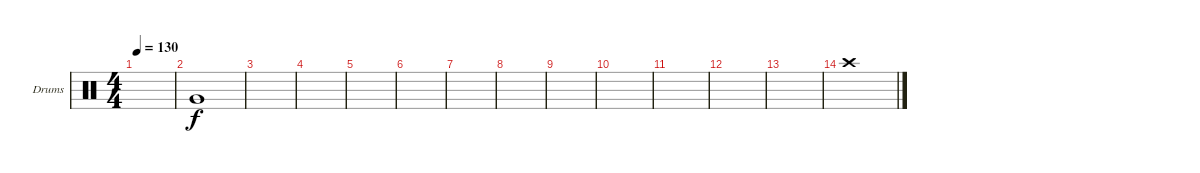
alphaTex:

\defaultSystemsLayout 4
\bracketExtendMode groupsimilarinstruments
\firstSystemTrackNameOrientation horizontal
\otherSystemsTrackNameOrientation horizontal
\track ("Drumkit" "Drums") {instrument percussion}
\staff {score}
\articulation defaults
\ts (4 4)
\tempo 130
\clef neutral
\scale
0.333333
\ks c
|
\scale
0.333333 "Very Low Tom (hit)".1 |
\scale
0.333333 |
\scale
0.333333 |
\scale
0.333333 |
\scale
0.333333 |
\scale
0.333333 |
\scale
0.333333 |
\scale
0.333333 |
\scale
0.333333 |
\scale
0.333333 |
\scale
0.333333 |
|
"Crash high (hit)".1
